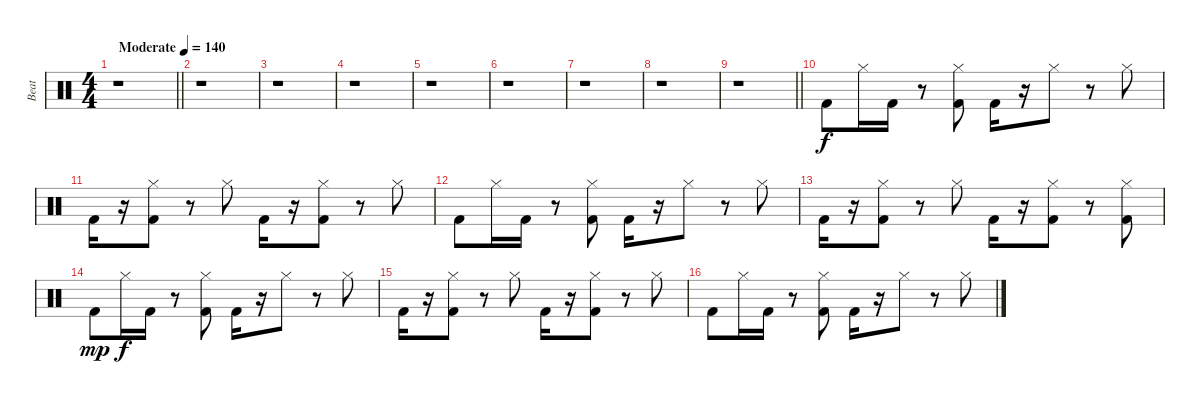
\track ("Beat" "Beat") {instrument percussion}
\staff {score}
\articulation defaults
\ts (4 4)
\tempo (140 "Moderate")
\clef neutral
\barLineRight lightlight
\ks c
r.1{dy f} |
\section ("" " ")
r.1 |
r.1 |
r.1 |
r.1 |
r.1 |
r.1 |
r.1 |
\barLineRight lightlight
r.1 |
\section ("" " ")
"Kick (hit) 2".8 "Hi-Hat (closed)".16 "Kick (hit) 2".16 r.8 ("Kick (hit) 2" "Hi-Hat (closed)").8 "Kick (hit) 2".16 r.16 "Hi-Hat (closed)".8 r.8 "Hi-Hat (closed)".8 |
"Kick (hit) 2".16 r.16 ("Kick (hit) 2" "Hi-Hat (closed)").8 r.8 "Hi-Hat (closed)".8 "Kick (hit) 2".16 r.16 ("Kick (hit) 2" "Hi-Hat (closed)").8 r.8 "Hi-Hat (closed)".8 |
"Kick (hit) 2".8 "Hi-Hat (closed)".16 "Kick (hit) 2".16 r.8 ("Kick (hit) 2" "Hi-Hat (closed)").8 "Kick (hit) 2".16 r.16 "Hi-Hat (closed)".8 r.8 "Hi-Hat (closed)".8 |
"Kick (hit) 2".16 r.16 ("Kick (hit) 2" "Hi-Hat (closed)").8 r.8 "Hi-Hat (closed)".8 "Kick (hit) 2".16 r.16 ("Kick (hit) 2" "Hi-Hat (closed)").8 r.8 ("Kick (hit) 2" "Hi-Hat (closed)").8 |
"Kick (hit) 2".8{dy mp} "Hi-Hat (closed)".16{dy f} "Kick (hit) 2".16 r.8 ("Kick (hit) 2" "Hi-Hat (closed)").8 "Kick (hit) 2".16 r.16 "Hi-Hat (closed)".8 r.8 "Hi-Hat (closed)".8 |
"Kick (hit) 2".16 r.16 ("Kick (hit) 2" "Hi-Hat (closed)").8 r.8 "Hi-Hat (closed)".8 "Kick (hit) 2".16 r.16 ("Kick (hit) 2" "Hi-Hat (closed)").8 r.8 "Hi-Hat (closed)".8 |
"Kick (hit) 2".8 "Hi-Hat (closed)".16 "Kick (hit) 2".16 r.8 ("Kick (hit) 2" "Hi-Hat (closed)").8 "Kick (hit) 2".16 r.16 "Hi-Hat (closed)".8 r.8 "Hi-Hat (closed)".8
